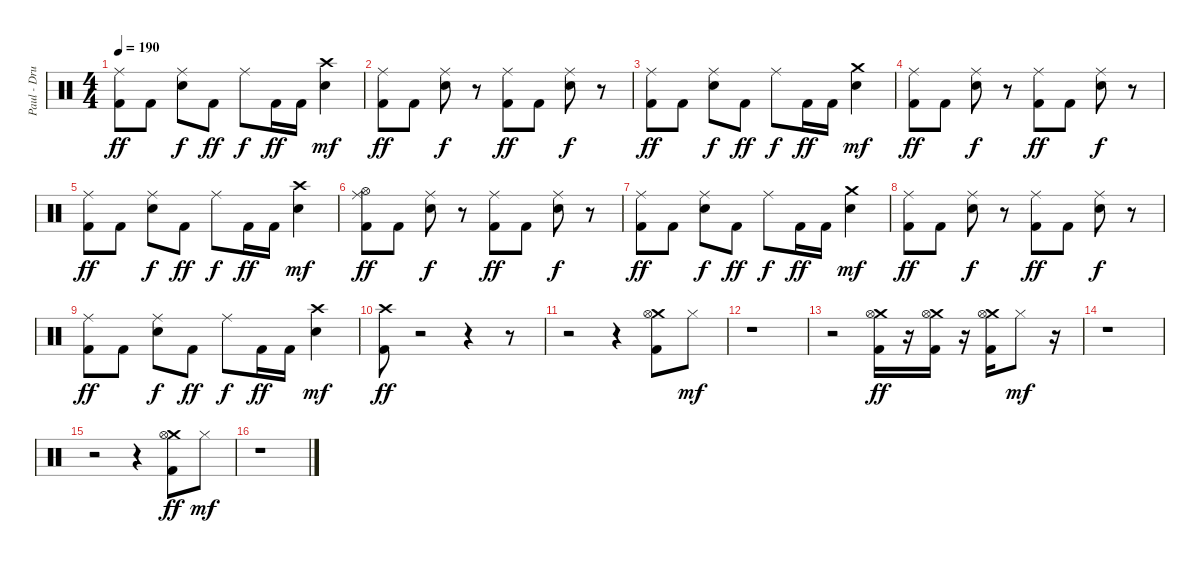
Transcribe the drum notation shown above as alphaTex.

\track ("Paul - Drums" "Paul - Dru") {instrument percussion}
\staff {score}
\articulation defaults
\ts (4 4)
\tempo 190
\clef neutral
\ks c
("Ride (middle)" "Kick (hit) 2").8{dy ff} "Kick (hit) 2".8 ("Ride (middle)" "Electric Snare (hit)").8{dy f} "Kick (hit) 2".8{dy ff} "Ride (middle)".8{dy f} "Kick (hit) 2".16{dy ff} "Kick (hit) 2".16 ("Crash high (hit)" "Electric Snare (hit)").4{dy mf} |
("Ride (middle)" "Kick (hit) 2").8{dy ff} "Kick (hit) 2".8 ("Ride (middle)" "Electric Snare (hit)").8{dy f} r.8 ("Ride (middle)" "Kick (hit) 2").8{dy ff} "Kick (hit) 2".8 ("Ride (middle)" "Electric Snare (hit)").8{dy f} r.8 |
("Ride (middle)" "Kick (hit) 2").8{dy ff} "Kick (hit) 2".8 ("Ride (middle)" "Electric Snare (hit)").8{dy f} "Kick (hit) 2".8{dy ff} "Ride (middle)".8{dy f} "Kick (hit) 2".16{dy ff} "Kick (hit) 2".16 ("Crash medium (hit)" "Electric Snare (hit)").4{dy mf} |
("Ride (middle)" "Kick (hit) 2").8{dy ff} "Kick (hit) 2".8 ("Ride (middle)" "Electric Snare (hit)").8{dy f} r.8 ("Ride (middle)" "Kick (hit) 2").8{dy ff} "Kick (hit) 2".8 ("Ride (middle)" "Electric Snare (hit)").8{dy f} r.8 |
("Ride (middle)" "Kick (hit) 2").8{dy ff} "Kick (hit) 2".8 ("Ride (middle)" "Electric Snare (hit)").8{dy f} "Kick (hit) 2".8{dy ff} "Ride (middle)".8{dy f} "Kick (hit) 2".16{dy ff} "Kick (hit) 2".16 ("Crash high (hit)" "Electric Snare (hit)").4{dy mf} |
("Ride (middle)" "Hi-Hat (open)" "Kick (hit) 2").8{dy ff} "Kick (hit) 2".8 ("Ride (middle)" "Electric Snare (hit)").8{dy f} r.8 ("Ride (middle)" "Kick (hit) 2").8{dy ff} "Kick (hit) 2".8 ("Ride (middle)" "Electric Snare (hit)").8{dy f} r.8 |
("Ride (middle)" "Kick (hit) 2").8{dy ff} "Kick (hit) 2".8 ("Ride (middle)" "Electric Snare (hit)").8{dy f} "Kick (hit) 2".8{dy ff} "Ride (middle)".8{dy f} "Kick (hit) 2".16{dy ff} "Kick (hit) 2".16 ("Crash medium (hit)" "Electric Snare (hit)").4{dy mf} |
("Ride (middle)" "Kick (hit) 2").8{dy ff} "Kick (hit) 2".8 ("Ride (middle)" "Electric Snare (hit)").8{dy f} r.8 ("Ride (middle)" "Kick (hit) 2").8{dy ff} "Kick (hit) 2".8 ("Ride (middle)" "Electric Snare (hit)").8{dy f} r.8 |
("Ride (middle)" "Kick (hit) 2").8{dy ff} "Kick (hit) 2".8 ("Ride (middle)" "Electric Snare (hit)").8{dy f} "Kick (hit) 2".8{dy ff} "Ride (middle)".8{dy f} "Kick (hit) 2".16{dy ff} "Kick (hit) 2".16 ("Crash high (hit)" "Electric Snare (hit)").4{dy mf} |
("Crash high (hit)" "Kick (hit) 2").8{dy ff} r.2 r.4 r.8 |
r.2 r.4 ("Crash medium (hit)" "Hi-Hat (open)" "Kick (hit) 2").8 "Hi-Hat (closed)".8{dy mf} |
r.1 |
r.2 ("Crash medium (hit)" "Hi-Hat (open)" "Kick (hit) 2").16{dy ff} r.16 ("Crash medium (hit)" "Hi-Hat (open)" "Kick (hit) 2").16 r.16 ("Crash medium (hit)" "Hi-Hat (open)" "Kick (hit) 2").16 "Hi-Hat (closed)".8{dy mf} r.16 |
r.1 |
r.2 r.4 ("Crash medium (hit)" "Hi-Hat (open)" "Kick (hit) 2").8{dy ff} "Hi-Hat (closed)".8{dy mf} |
r.1
